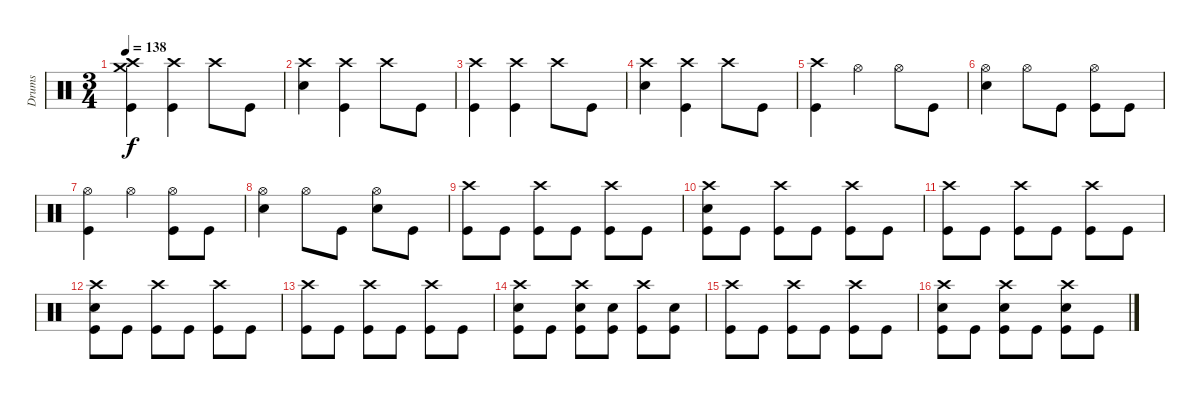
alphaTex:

\track ("Drums" "Drums") {instrument percussion}
\staff {score}
\articulation defaults
\ts (3 4)
\tempo 138
\clef neutral
\ks c
("Crash medium (hit)" "Crash high (hit)" "Kick (hit)").4{dy f} ("Crash high (hit)" "Kick (hit)").4 "Crash high (hit)".8 "Kick (hit)".8 |
("Crash high (hit)" "Snare (hit) 2").4 ("Crash high (hit)" "Kick (hit)").4 "Crash high (hit)".8 "Kick (hit)".8 |
("Crash high (hit)" "Kick (hit)").4 ("Crash high (hit)" "Kick (hit)").4 "Crash high (hit)".8 "Kick (hit)".8 |
("Crash high (hit)" "Snare (hit) 2").4 ("Crash high (hit)" "Kick (hit)").4 "Crash high (hit)".8 "Kick (hit)".8 |
("Crash high (hit)" "Kick (hit)").4 "Hi-Hat (open)".4 "Hi-Hat (open)".8 "Kick (hit)".8 |
("Hi-Hat (open)" "Snare (hit) 2").4 "Hi-Hat (open)".8 "Kick (hit)".8 ("Hi-Hat (open)" "Kick (hit)").8 "Kick (hit)".8 |
("Hi-Hat (open)" "Kick (hit)").4 "Hi-Hat (open)".4 ("Hi-Hat (open)" "Kick (hit)").8 "Kick (hit)".8 |
("Hi-Hat (open)" "Snare (hit) 2").4 "Hi-Hat (open)".8 "Kick (hit)".8 ("Hi-Hat (open)" "Snare (hit) 2").8 "Kick (hit)".8 |
("Crash high (hit)" "Kick (hit)").8 "Kick (hit)".8 ("Crash high (hit)" "Kick (hit)").8 "Kick (hit)".8 ("Crash high (hit)" "Kick (hit)").8 "Kick (hit)".8 |
("Crash high (hit)" "Snare (hit) 2" "Kick (hit)").8 "Kick (hit)".8 ("Crash high (hit)" "Kick (hit)").8 "Kick (hit)".8 ("Crash high (hit)" "Kick (hit)").8 "Kick (hit)".8 |
("Crash high (hit)" "Kick (hit)").8 "Kick (hit)".8 ("Crash high (hit)" "Kick (hit)").8 "Kick (hit)".8 ("Crash high (hit)" "Kick (hit)").8 "Kick (hit)".8 |
("Crash high (hit)" "Snare (hit) 2" "Kick (hit)").8 "Kick (hit)".8 ("Crash high (hit)" "Kick (hit)").8 "Kick (hit)".8 ("Crash high (hit)" "Kick (hit)").8 "Kick (hit)".8 |
("Crash high (hit)" "Kick (hit)").8 "Kick (hit)".8 ("Crash high (hit)" "Kick (hit)").8 "Kick (hit)".8 ("Crash high (hit)" "Kick (hit)").8 "Kick (hit)".8 |
("Crash high (hit)" "Snare (hit) 2" "Kick (hit)").8 "Kick (hit)".8 ("Crash high (hit)" "Snare (hit) 2" "Kick (hit)").8 ("Snare (hit) 2" "Kick (hit)").8 ("Crash high (hit)" "Kick (hit)").8 ("Snare (hit) 2" "Kick (hit)").8 |
("Crash high (hit)" "Kick (hit)").8 "Kick (hit)".8 ("Crash high (hit)" "Kick (hit)").8 "Kick (hit)".8 ("Crash high (hit)" "Kick (hit)").8 "Kick (hit)".8 |
("Crash high (hit)" "Snare (hit) 2" "Kick (hit)").8 "Kick (hit)".8 ("Crash high (hit)" "Snare (hit) 2" "Kick (hit)").8 "Kick (hit)".8 ("Crash high (hit)" "Snare (hit) 2" "Kick (hit)").8 "Kick (hit)".8
